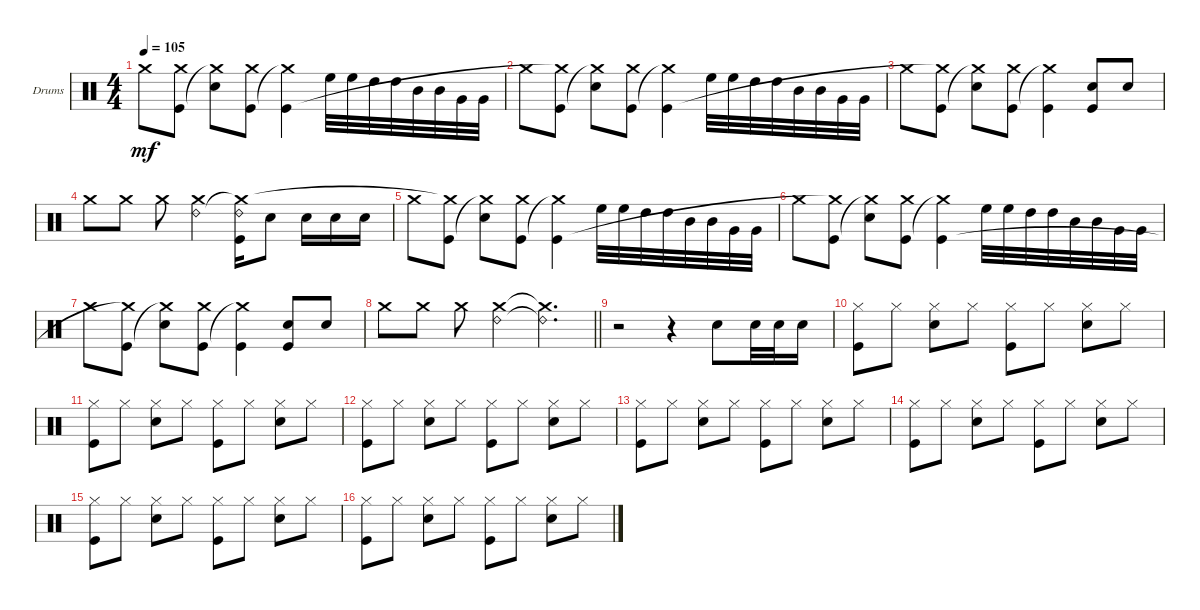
\defaultSystemsLayout 4
\bracketExtendMode groupsimilarinstruments
\firstSystemTrackNameOrientation horizontal
\otherSystemsTrackNameOrientation horizontal
\track ("Drumkit" "Drums") {instrument percussion}
\staff {score}
\articulation defaults
\ts (4 4)
\tempo 105
\clef neutral
\ks c "Crash medium (hit)".8{dy mf}
("Kick (hit)" "Crash medium (hit)").8 ("Crash medium (hit)"{t} "Snare (hit) 2").8 ("Kick (hit)" "Crash medium (hit)").8 ("Crash medium (hit)"{t} "Kick (hit)").4 "High Floor Tom (hit)".32 "High Floor Tom (hit)".32 "High Tom (hit)".32 "High Tom (hit)".32 "Mid Tom (hit)".32 "Mid Tom (hit)".32 "Very Low Tom (hit)".32 "Very Low Tom (hit)".32 |
"Crash medium (hit)".8 ("Kick (hit)" "Crash medium (hit)"{t}).8 ("Crash medium (hit)"{t} "Snare (hit) 2").8 ("Kick (hit)" "Crash medium (hit)").8 ("Crash medium (hit)"{t} "Kick (hit)").4 "High Floor Tom (hit)".32 "High Floor Tom (hit)".32 "High Tom (hit)".32 "High Tom (hit)".32 "Mid Tom (hit)".32 "Mid Tom (hit)".32 "Very Low Tom (hit)".32 "Very Low Tom (hit)".32 |
"Crash medium (hit)".8 ("Kick (hit)" "Crash medium (hit)"{t}).8 ("Crash medium (hit)"{t} "Snare (hit) 2").8 ("Kick (hit)" "Crash medium (hit)").8 ("Crash medium (hit)"{t} "Kick (hit)").4 ("Snare (hit) 2" "Kick (hit)").8 "Snare (hit) 2".8 |
"Crash medium (hit)".8 "Crash medium (hit)".8 "Crash medium (hit)".8 ("Crash medium (hit)" "Ride (bell) 2").4 ("Kick (hit)" "Crash medium (hit)"{t} "Ride (bell) 2").16 "Snare (hit) 2".8 "Snare (hit) 2".16 "Snare (hit) 2".16 "Snare (hit) 2".16 |
"Crash medium (hit)".8 ("Kick (hit)" "Crash medium (hit)"{t}).8 ("Crash medium (hit)"{t} "Snare (hit) 2").8 ("Kick (hit)" "Crash medium (hit)").8 ("Crash medium (hit)"{t} "Kick (hit)").4 "High Floor Tom (hit)".32 "High Floor Tom (hit)".32 "High Tom (hit)".32 "High Tom (hit)".32 "Mid Tom (hit)".32 "Mid Tom (hit)".32 "Very Low Tom (hit)".32 "Very Low Tom (hit)".32 |
"Crash medium (hit)".8 ("Kick (hit)" "Crash medium (hit)"{t}).8 ("Crash medium (hit)"{t} "Snare (hit) 2").8 ("Kick (hit)" "Crash medium (hit)").8 ("Crash medium (hit)"{t} "Kick (hit)").4 "High Floor Tom (hit)".32 "High Floor Tom (hit)".32 "High Tom (hit)".32 "High Tom (hit)".32 "Mid Tom (hit)".32 "Mid Tom (hit)".32 "Very Low Tom (hit)".32 "Very Low Tom (hit)".32 |
"Crash medium (hit)".8 ("Kick (hit)" "Crash medium (hit)"{t}).8 ("Crash medium (hit)"{t} "Snare (hit) 2").8 ("Kick (hit)" "Crash medium (hit)").8 ("Crash medium (hit)"{t} "Kick (hit)").4 ("Snare (hit) 2" "Kick (hit)").8 "Snare (hit) 2".8 |
\barLineRight lightlight "Crash medium (hit)".8 "Crash medium (hit)".8 "Crash medium (hit)".8
("Crash medium (hit)" "Ride (bell) 2").4 ("Crash medium (hit)"{t} "Ride (bell) 2"{t}).4{d} |
r.2 r.4 "Snare (hit) 2".8 "Snare (hit) 2".32 "Snare (hit) 2".32 "Snare (hit) 2".16 |
("Hi-Hat (closed)" "Kick (hit)").8 "Hi-Hat (closed)".8 ("Hi-Hat (closed)" "Snare (hit) 2").8 "Hi-Hat (closed)".8 ("Hi-Hat (closed)" "Kick (hit)").8 "Hi-Hat (closed)".8 ("Hi-Hat (closed)" "Snare (hit) 2").8 "Hi-Hat (closed)".8 |
("Hi-Hat (closed)" "Kick (hit)").8 "Hi-Hat (closed)".8 ("Hi-Hat (closed)" "Snare (hit) 2").8 "Hi-Hat (closed)".8 ("Hi-Hat (closed)" "Kick (hit)").8 "Hi-Hat (closed)".8 ("Hi-Hat (closed)" "Snare (hit) 2").8 "Hi-Hat (closed)".8 |
("Hi-Hat (closed)" "Kick (hit)").8 "Hi-Hat (closed)".8 ("Hi-Hat (closed)" "Snare (hit) 2").8 "Hi-Hat (closed)".8 ("Hi-Hat (closed)" "Kick (hit)").8 "Hi-Hat (closed)".8 ("Hi-Hat (closed)" "Snare (hit) 2").8 "Hi-Hat (closed)".8 |
("Hi-Hat (closed)" "Kick (hit)").8 "Hi-Hat (closed)".8 ("Hi-Hat (closed)" "Snare (hit) 2").8 "Hi-Hat (closed)".8 ("Hi-Hat (closed)" "Kick (hit)").8 "Hi-Hat (closed)".8 ("Hi-Hat (closed)" "Snare (hit) 2").8 "Hi-Hat (closed)".8 |
("Hi-Hat (closed)" "Kick (hit)").8 "Hi-Hat (closed)".8 ("Hi-Hat (closed)" "Snare (hit) 2").8 "Hi-Hat (closed)".8 ("Hi-Hat (closed)" "Kick (hit)").8 "Hi-Hat (closed)".8 ("Hi-Hat (closed)" "Snare (hit) 2").8 "Hi-Hat (closed)".8 |
("Hi-Hat (closed)" "Kick (hit)").8 "Hi-Hat (closed)".8 ("Hi-Hat (closed)" "Snare (hit) 2").8 "Hi-Hat (closed)".8 ("Hi-Hat (closed)" "Kick (hit)").8 "Hi-Hat (closed)".8 ("Hi-Hat (closed)" "Snare (hit) 2").8 "Hi-Hat (closed)".8 |
("Hi-Hat (closed)" "Kick (hit)").8 "Hi-Hat (closed)".8 ("Hi-Hat (closed)" "Snare (hit) 2").8 "Hi-Hat (closed)".8 ("Hi-Hat (closed)" "Kick (hit)").8 "Hi-Hat (closed)".8 ("Hi-Hat (closed)" "Snare (hit) 2").8 "Hi-Hat (closed)".8
